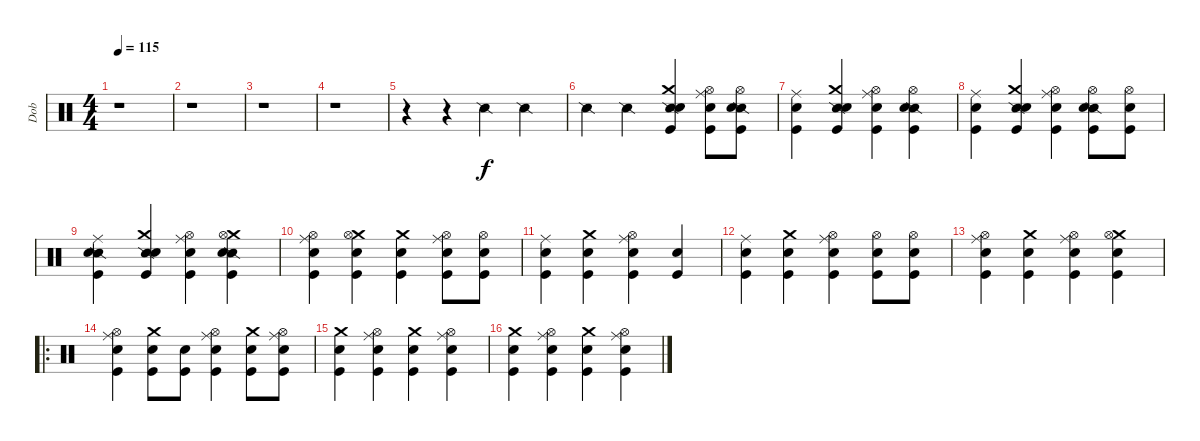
\track ("Dob" "Dob") {instrument percussion}
\staff {score}
\articulation defaults
\ts (4 4)
\tempo 115
\clef neutral
\ks c
r.1{dy f} |
r.1 |
r.1 |
r.1 |
r.4 r.4 "Snare (side stick) 2".4 "Snare (side stick) 2".4 |
"Snare (side stick) 2".4 "Snare (side stick) 2".4 ("Crash medium (hit)" "Snare (side stick) 2" "Snare (hit) 2" "Kick (hit)").4 ("Hi-Hat (open)" "Ride (middle)" "Snare (hit) 2" "Kick (hit)").8 ("Hi-Hat (open)" "Snare (side stick) 2" "Snare (hit) 2" "Kick (hit)").8 |
("Ride (middle)" "Snare (hit) 2" "Kick (hit)").4 ("Crash medium (hit)" "Snare (side stick) 2" "Snare (hit) 2" "Kick (hit)").4 ("Hi-Hat (open)" "Ride (middle)" "Snare (hit) 2" "Kick (hit)").4 ("Hi-Hat (open)" "Snare (side stick) 2" "Snare (hit) 2" "Kick (hit)").4 |
("Ride (middle)" "Snare (hit) 2" "Kick (hit)").4 ("Crash medium (hit)" "Snare (side stick) 2" "Snare (hit) 2" "Kick (hit)").4 ("Hi-Hat (open)" "Ride (middle)" "Snare (hit) 2" "Kick (hit)").4 ("Hi-Hat (open)" "Snare (side stick) 2" "Snare (hit) 2" "Kick (hit)").8 ("Hi-Hat (open)" "Snare (hit) 2" "Kick (hit)").8 |
("Snare (side stick) 2" "Ride (middle)" "Snare (hit) 2" "Kick (hit)").4 ("Crash medium (hit)" "Snare (side stick) 2" "Snare (hit) 2" "Kick (hit)").4 ("Hi-Hat (open)" "Ride (middle)" "Snare (hit) 2" "Kick (hit)").4 ("Crash medium (hit)" "Hi-Hat (open)" "Snare (side stick) 2" "Snare (hit) 2" "Kick (hit)").4 |
("Hi-Hat (open)" "Ride (middle)" "Snare (hit) 2" "Kick (hit)").4 ("Crash medium (hit)" "Hi-Hat (open)" "Snare (hit) 2" "Kick (hit)").4 ("Crash medium (hit)" "Snare (hit) 2" "Kick (hit)").4 ("Hi-Hat (open)" "Ride (middle)" "Snare (hit) 2" "Kick (hit)").8 ("Hi-Hat (open)" "Snare (hit) 2" "Kick (hit)").8 |
("Ride (middle)" "Snare (hit) 2" "Kick (hit)").4 ("Crash medium (hit)" "Snare (hit) 2" "Kick (hit)").4 ("Hi-Hat (open)" "Ride (middle)" "Snare (hit) 2" "Kick (hit)").4 ("Snare (hit) 2" "Kick (hit)").4 |
("Ride (middle)" "Snare (hit) 2" "Kick (hit)").4 ("Crash medium (hit)" "Snare (hit) 2" "Kick (hit)").4 ("Hi-Hat (open)" "Ride (middle)" "Snare (hit) 2" "Kick (hit)").4 ("Hi-Hat (open)" "Snare (hit) 2" "Kick (hit)").8 ("Hi-Hat (open)" "Snare (hit) 2" "Kick (hit)").8 |
("Hi-Hat (open)" "Ride (middle)" "Snare (hit) 2" "Kick (hit)").4 ("Crash medium (hit)" "Snare (hit) 2" "Kick (hit)").4 ("Hi-Hat (open)" "Ride (middle)" "Snare (hit) 2" "Kick (hit)").4 ("Crash medium (hit)" "Hi-Hat (open)" "Snare (hit) 2" "Kick (hit)").4 |
\ro
("Hi-Hat (open)" "Ride (middle)" "Snare (hit) 2" "Kick (hit)").4 ("Crash medium (hit)" "Snare (hit) 2" "Kick (hit)").8 ("Snare (hit) 2" "Kick (hit)").8 ("Hi-Hat (open)" "Ride (middle)" "Snare (hit) 2" "Kick (hit)").4 ("Crash medium (hit)" "Snare (hit) 2" "Kick (hit)").8 ("Hi-Hat (open)" "Ride (middle)" "Snare (hit) 2" "Kick (hit)").8 |
("Crash medium (hit)" "Snare (hit) 2" "Kick (hit)").4 ("Hi-Hat (open)" "Ride (middle)" "Snare (hit) 2" "Kick (hit)").4 ("Crash medium (hit)" "Snare (hit) 2" "Kick (hit)").4 ("Hi-Hat (open)" "Ride (middle)" "Snare (hit) 2" "Kick (hit)").4 |
("Crash medium (hit)" "Snare (hit) 2" "Kick (hit)").4 ("Hi-Hat (open)" "Ride (middle)" "Snare (hit) 2" "Kick (hit)").4 ("Crash medium (hit)" "Snare (hit) 2" "Kick (hit)").4 ("Hi-Hat (open)" "Ride (middle)" "Snare (hit) 2" "Kick (hit)").4
